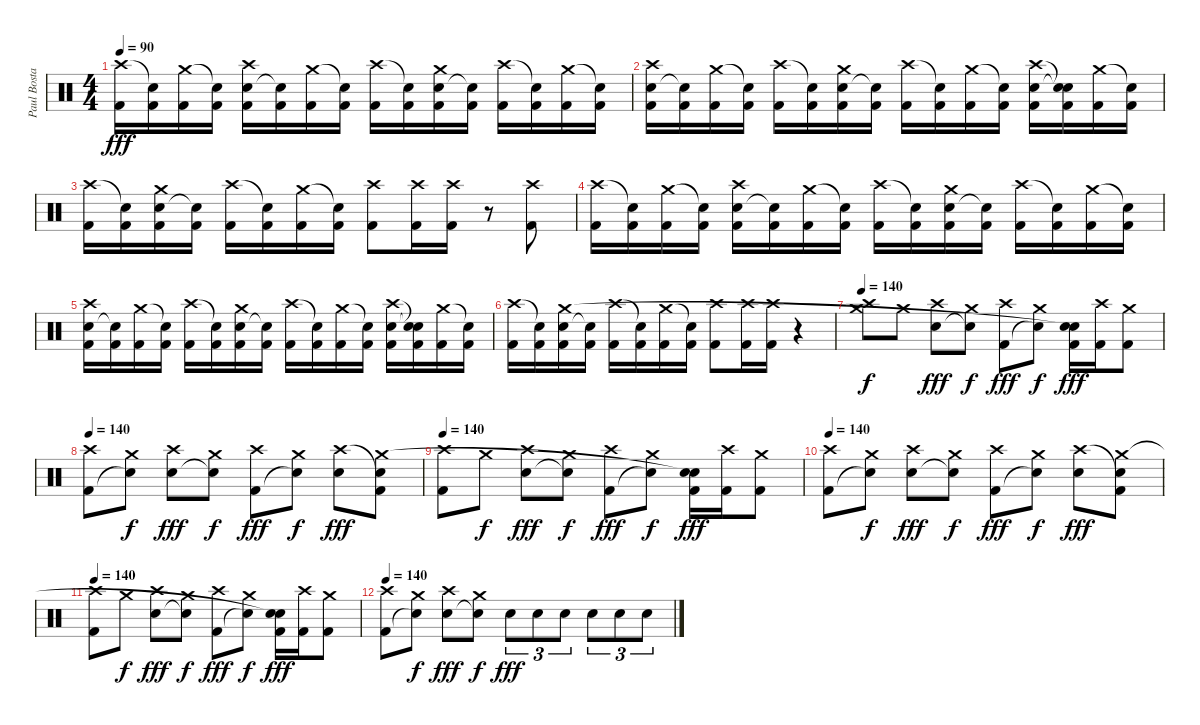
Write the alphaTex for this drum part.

\track ("Paul Bostaph" "Paul Bosta") {instrument percussion}
\staff {score}
\articulation defaults
\ts (4 4)
\tempo 90
\clef neutral
\ks c
("Kick (hit) 2" "Crash high (hit)").16{dy fff} ("Kick (hit) 2" "Snare (hit)"{t}).16 ("Kick (hit) 2" "Crash medium (hit)").16 ("Kick (hit) 2" "Snare (hit)"{t}).16 ("Kick (hit) 2" "Snare (hit) 2" "Crash high (hit)").16 ("Kick (hit) 2" "Snare (hit)"{t}).16 ("Kick (hit) 2" "Crash medium (hit)").16 ("Kick (hit) 2" "Snare (hit)"{t}).16 ("Kick (hit) 2" "Crash high (hit)").16 ("Kick (hit) 2" "Snare (hit)"{t}).16 ("Kick (hit) 2" "Snare (hit) 2" "Crash medium (hit)").16 ("Kick (hit) 2" "Snare (hit)"{t}).16 ("Kick (hit) 2" "Crash high (hit)").16 ("Kick (hit) 2" "Snare (hit)"{t}).16 ("Kick (hit) 2" "Crash medium (hit)").16 ("Kick (hit) 2" "Snare (hit)"{t}).16 |
("Kick (hit) 2" "Snare (hit) 2" "Crash high (hit)").16 ("Kick (hit) 2" "Snare (hit)"{t}).16 ("Kick (hit) 2" "Crash medium (hit)").16 ("Kick (hit) 2" "Snare (hit)"{t}).16 ("Kick (hit) 2" "Crash high (hit)").16 ("Kick (hit) 2" "Snare (hit)"{t}).16 ("Kick (hit) 2" "Snare (hit) 2" "Crash medium (hit)").16 ("Kick (hit) 2" "Snare (hit)"{t}).16 ("Kick (hit) 2" "Crash high (hit)").16 ("Kick (hit) 2" "Snare (hit)"{t}).16 ("Kick (hit) 2" "Crash medium (hit)").16 ("Kick (hit) 2" "Snare (hit)"{t}).16 ("Kick (hit) 2" "Snare (hit) 2" "Crash high (hit)").16 ("Kick (hit) 2" "Snare (hit)"{t} "Snare (hit)"{t}).16 ("Kick (hit) 2" "Crash medium (hit)").16 ("Kick (hit) 2" "Snare (hit)"{t}).16 |
("Kick (hit) 2" "Crash high (hit)").16 ("Kick (hit) 2" "Snare (hit)"{t}).16 ("Kick (hit) 2" "Snare (hit) 2" "Crash medium (hit)").16 ("Kick (hit) 2" "Snare (hit)"{t}).16 ("Kick (hit) 2" "Crash high (hit)").16 ("Kick (hit) 2" "Snare (hit)"{t}).16 ("Kick (hit) 2" "Crash medium (hit)").16 ("Kick (hit) 2" "Snare (hit)"{t}).16 ("Kick (hit) 2" "Crash high (hit)").8 ("Kick (hit) 2" "Crash high (hit)").16 ("Kick (hit) 2" "Crash high (hit)").16 r.8 ("Kick (hit) 2" "Crash high (hit)").8 |
("Kick (hit) 2" "Crash high (hit)").16 ("Kick (hit) 2" "Snare (hit)"{t}).16 ("Kick (hit) 2" "Crash medium (hit)").16 ("Kick (hit) 2" "Snare (hit)"{t}).16 ("Kick (hit) 2" "Snare (hit) 2" "Crash high (hit)").16 ("Kick (hit) 2" "Snare (hit)"{t}).16 ("Kick (hit) 2" "Crash medium (hit)").16 ("Kick (hit) 2" "Snare (hit)"{t}).16 ("Kick (hit) 2" "Crash high (hit)").16 ("Kick (hit) 2" "Snare (hit)"{t}).16 ("Kick (hit) 2" "Snare (hit) 2" "Crash medium (hit)").16 ("Kick (hit) 2" "Snare (hit)"{t}).16 ("Kick (hit) 2" "Crash high (hit)").16 ("Kick (hit) 2" "Snare (hit)"{t}).16 ("Kick (hit) 2" "Crash medium (hit)").16 ("Kick (hit) 2" "Snare (hit)"{t}).16 |
("Kick (hit) 2" "Snare (hit) 2" "Crash high (hit)").16 ("Kick (hit) 2" "Snare (hit)"{t}).16 ("Kick (hit) 2" "Crash medium (hit)").16 ("Kick (hit) 2" "Snare (hit)"{t}).16 ("Kick (hit) 2" "Crash high (hit)").16 ("Kick (hit) 2" "Snare (hit)"{t}).16 ("Kick (hit) 2" "Snare (hit) 2" "Crash medium (hit)").16 ("Kick (hit) 2" "Snare (hit)"{t}).16 ("Kick (hit) 2" "Crash high (hit)").16 ("Kick (hit) 2" "Snare (hit)"{t}).16 ("Kick (hit) 2" "Crash medium (hit)").16 ("Kick (hit) 2" "Snare (hit)"{t}).16 ("Kick (hit) 2" "Snare (hit) 2" "Crash high (hit)").16 ("Kick (hit) 2" "Snare (hit)"{t} "Snare (hit)"{t}).16 ("Kick (hit) 2" "Crash medium (hit)").16 ("Kick (hit) 2" "Snare (hit)"{t}).16 |
("Kick (hit) 2" "Crash high (hit)").16 ("Kick (hit) 2" "Snare (hit)"{t}).16 ("Kick (hit) 2" "Snare (hit) 2" "Crash medium (hit)").16 ("Kick (hit) 2" "Snare (hit)"{t}).16 ("Kick (hit) 2" "Crash high (hit)").16 ("Kick (hit) 2" "Snare (hit)"{t}).16 ("Kick (hit) 2" "Crash medium (hit)").16 ("Kick (hit) 2" "Snare (hit)"{t}).16 ("Kick (hit) 2" "Crash high (hit)").8 ("Kick (hit) 2" "Crash high (hit)").16 ("Kick (hit) 2" "Crash high (hit)").16 r.4 |
\tempo 140
("Crash medium (hit)" "Crash high (hit)").8{dy f} "Crash medium (hit)".8 ("Snare (hit) 2" "Crash high (hit)").8{dy fff} ("Snare (hit)"{t} "Crash medium (hit)").8{dy f} ("Kick (hit) 2" "Crash high (hit)").8{dy fff} ("Snare (hit)"{t} "Crash medium (hit)").8{dy f} ("Kick (hit) 2" "Snare (hit) 2" "Snare (hit)"{t}).16{dy fff} ("Kick (hit) 2" "Crash high (hit)").16 ("Kick (hit) 2" "Crash medium (hit)").8 |
\tempo 140
("Kick (hit) 2" "Crash high (hit)").8 ("Snare (hit)"{t} "Crash medium (hit)").8{dy f} ("Snare (hit) 2" "Crash high (hit)").8{dy fff} ("Snare (hit)"{t} "Crash medium (hit)").8{dy f} ("Kick (hit) 2" "Crash high (hit)").8{dy fff} ("Snare (hit)"{t} "Crash medium (hit)").8{dy f} ("Snare (hit) 2" "Crash high (hit)").8{dy fff} ("Kick (hit) 2" "Snare (hit)"{t} "Crash medium (hit)").8 |
\tempo 140
("Kick (hit) 2" "Crash high (hit)").8 "Crash medium (hit)".8{dy f} ("Snare (hit) 2" "Crash high (hit)").8{dy fff} ("Snare (hit)"{t} "Crash medium (hit)").8{dy f} ("Kick (hit) 2" "Crash high (hit)").8{dy fff} ("Snare (hit)"{t} "Crash medium (hit)").8{dy f} ("Kick (hit) 2" "Snare (hit) 2" "Snare (hit)"{t}).16{dy fff} ("Kick (hit) 2" "Crash high (hit)").16 ("Kick (hit) 2" "Crash medium (hit)").8 |
\tempo 140
("Kick (hit) 2" "Crash high (hit)").8 ("Snare (hit)"{t} "Crash medium (hit)").8{dy f} ("Snare (hit) 2" "Crash high (hit)").8{dy fff} ("Snare (hit)"{t} "Crash medium (hit)").8{dy f} ("Kick (hit) 2" "Crash high (hit)").8{dy fff} ("Snare (hit)"{t} "Crash medium (hit)").8{dy f} ("Snare (hit) 2" "Crash high (hit)").8{dy fff} ("Kick (hit) 2" "Snare (hit)"{t} "Crash medium (hit)").8 |
\tempo 140
("Kick (hit) 2" "Crash high (hit)").8 "Crash medium (hit)".8{dy f} ("Snare (hit) 2" "Crash high (hit)").8{dy fff} ("Snare (hit)"{t} "Crash medium (hit)").8{dy f} ("Kick (hit) 2" "Crash high (hit)").8{dy fff} ("Snare (hit)"{t} "Crash medium (hit)").8{dy f} ("Kick (hit) 2" "Snare (hit) 2" "Snare (hit)"{t}).16{dy fff} ("Kick (hit) 2" "Crash high (hit)").16 ("Kick (hit) 2" "Crash medium (hit)").8 |
\tempo 140
("Kick (hit) 2" "Crash high (hit)").8 ("Snare (hit)"{t} "Crash medium (hit)").8{dy f} ("Snare (hit) 2" "Crash high (hit)").8{dy fff} ("Snare (hit)"{t} "Crash medium (hit)").8{dy f} "Snare (hit) 2".8{tu (3 2) dy fff} "Snare (hit) 2".8{tu (3 2)} "Snare (hit) 2".8{tu (3 2)} "Snare (hit) 2".8{tu (3 2)} "Snare (hit) 2".8{tu (3 2)} "Snare (hit) 2".8{tu (3 2)}
